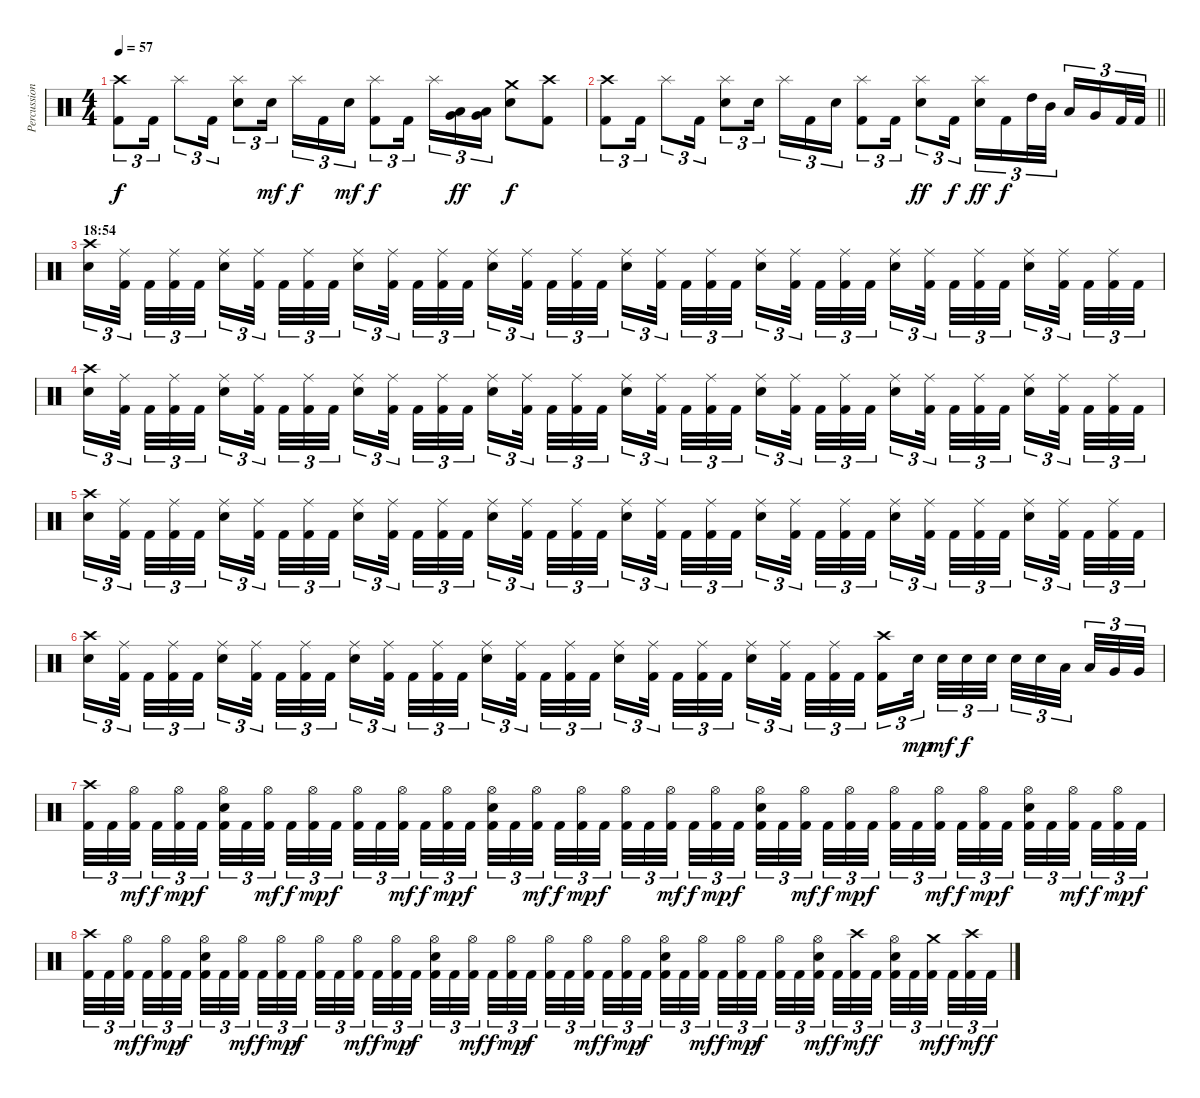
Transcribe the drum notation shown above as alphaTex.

\track ("Percussions" "Percussion") {instrument percussion}
\staff {score}
\articulation defaults
\ts (4 4)
\tempo 57
\clef neutral
\ks c
("Crash high (hit)" "Kick (hit) 2").8{tu (3 2) dy f} "Kick (hit) 2".16{tu (3 2)} "Splash (hit)".8{tu (3 2)} "Kick (hit) 2".16{tu (3 2)} ("Splash (hit)" "Snare (hit) 2").8{tu (3 2)} "Snare (hit) 2".16{tu (3 2) dy mf beam splitsecondary} "Splash (hit)".16{tu (3 2) dy f} "Kick (hit) 2".16{tu (3 2)} "Snare (hit) 2".16{tu (3 2) dy mf} ("Splash (hit)" "Kick (hit) 2").8{tu (3 2) dy f} "Kick (hit) 2".16{tu (3 2) beam splitsecondary} "Splash (hit)".16{tu (3 2)} ("Low Floor Tom (hit)" "Very Low Tom (hit)").16{tu (3 2) dy ff} ("Low Floor Tom (hit)" "Very Low Tom (hit)").16{tu (3 2)} ("Crash medium (hit)" "Snare (hit) 2").8{dy f} ("Crash high (hit)" "Kick (hit) 2").8 |
\barLineRight lightlight
("Crash high (hit)" "Kick (hit) 2").8{tu (3 2)} "Kick (hit) 2".16{tu (3 2)} "Splash (hit)".8{tu (3 2)} "Kick (hit) 2".16{tu (3 2)} ("Splash (hit)" "Snare (hit) 2").8{tu (3 2)} "Snare (hit) 2".16{tu (3 2) beam splitsecondary} "Splash (hit)".16{tu (3 2)} "Kick (hit) 2".16{tu (3 2)} "Snare (hit) 2".16{tu (3 2)} ("Splash (hit)" "Kick (hit) 2").8{tu (3 2)} "Kick (hit) 2".16{tu (3 2)} ("Splash (hit)" "Snare (hit) 2").8{tu (3 2) dy ff} "Kick (hit) 2".16{tu (3 2) dy f} ("Splash (hit)" "Snare (hit) 2").16{tu (3 2) dy ff} "Kick (hit) 2".16{tu (3 2) dy f} "High Tom (hit)".32{tu (3 2)} "Mid Tom (hit)".32{tu (3 2) beam splitsecondary} "Low Tom (hit)".16{tu (3 2)} "Very Low Tom (hit)".16{tu (3 2)} "Kick (hit) 2".32{tu (3 2)} "Kick (hit) 2".32{tu (3 2)} |
\section ("" "18:54")
("Crash high (hit)" "Snare (hit) 2").16{tu (3 2)} ("Ride (middle)" "Kick (hit) 2").32{tu (3 2) beam splitsecondary} "Kick (hit) 2".32{tu (3 2)} ("Ride (middle)" "Kick (hit) 2").32{tu (3 2)} "Kick (hit) 2".32{tu (3 2) beam splitsecondary} ("Ride (middle)" "Snare (hit) 2").16{tu (3 2)} ("Ride (middle)" "Kick (hit) 2").32{tu (3 2) beam splitsecondary} "Kick (hit) 2".32{tu (3 2)} ("Ride (middle)" "Kick (hit) 2").32{tu (3 2)} "Kick (hit) 2".32{tu (3 2)} ("Ride (middle)" "Snare (hit) 2").16{tu (3 2)} ("Ride (middle)" "Kick (hit) 2").32{tu (3 2) beam splitsecondary} "Kick (hit) 2".32{tu (3 2)} ("Ride (middle)" "Kick (hit) 2").32{tu (3 2)} "Kick (hit) 2".32{tu (3 2) beam splitsecondary} ("Ride (middle)" "Snare (hit) 2").16{tu (3 2)} ("Ride (middle)" "Kick (hit) 2").32{tu (3 2) beam splitsecondary} "Kick (hit) 2".32{tu (3 2)} ("Ride (middle)" "Kick (hit) 2").32{tu (3 2)} "Kick (hit) 2".32{tu (3 2)} ("Ride (middle)" "Snare (hit) 2").16{tu (3 2)} ("Ride (middle)" "Kick (hit) 2").32{tu (3 2) beam splitsecondary} "Kick (hit) 2".32{tu (3 2)} ("Ride (middle)" "Kick (hit) 2").32{tu (3 2)} "Kick (hit) 2".32{tu (3 2) beam splitsecondary} ("Ride (middle)" "Snare (hit) 2").16{tu (3 2)} ("Ride (middle)" "Kick (hit) 2").32{tu (3 2) beam splitsecondary} "Kick (hit) 2".32{tu (3 2)} ("Ride (middle)" "Kick (hit) 2").32{tu (3 2)} "Kick (hit) 2".32{tu (3 2)} ("Ride (middle)" "Snare (hit) 2").16{tu (3 2)} ("Ride (middle)" "Kick (hit) 2").32{tu (3 2) beam splitsecondary} "Kick (hit) 2".32{tu (3 2)} ("Ride (middle)" "Kick (hit) 2").32{tu (3 2)} "Kick (hit) 2".32{tu (3 2) beam splitsecondary} ("Ride (middle)" "Snare (hit) 2").16{tu (3 2)} ("Ride (middle)" "Kick (hit) 2").32{tu (3 2) beam splitsecondary} "Kick (hit) 2".32{tu (3 2)} ("Ride (middle)" "Kick (hit) 2").32{tu (3 2)} "Kick (hit) 2".32{tu (3 2)} |
("Crash high (hit)" "Snare (hit) 2").16{tu (3 2)} ("Ride (middle)" "Kick (hit) 2").32{tu (3 2) beam splitsecondary} "Kick (hit) 2".32{tu (3 2)} ("Ride (middle)" "Kick (hit) 2").32{tu (3 2)} "Kick (hit) 2".32{tu (3 2) beam splitsecondary} ("Ride (middle)" "Snare (hit) 2").16{tu (3 2)} ("Ride (middle)" "Kick (hit) 2").32{tu (3 2) beam splitsecondary} "Kick (hit) 2".32{tu (3 2)} ("Ride (middle)" "Kick (hit) 2").32{tu (3 2)} "Kick (hit) 2".32{tu (3 2)} ("Ride (middle)" "Snare (hit) 2").16{tu (3 2)} ("Ride (middle)" "Kick (hit) 2").32{tu (3 2) beam splitsecondary} "Kick (hit) 2".32{tu (3 2)} ("Ride (middle)" "Kick (hit) 2").32{tu (3 2)} "Kick (hit) 2".32{tu (3 2) beam splitsecondary} ("Ride (middle)" "Snare (hit) 2").16{tu (3 2)} ("Ride (middle)" "Kick (hit) 2").32{tu (3 2) beam splitsecondary} "Kick (hit) 2".32{tu (3 2)} ("Ride (middle)" "Kick (hit) 2").32{tu (3 2)} "Kick (hit) 2".32{tu (3 2)} ("Ride (middle)" "Snare (hit) 2").16{tu (3 2)} ("Ride (middle)" "Kick (hit) 2").32{tu (3 2) beam splitsecondary} "Kick (hit) 2".32{tu (3 2)} ("Ride (middle)" "Kick (hit) 2").32{tu (3 2)} "Kick (hit) 2".32{tu (3 2) beam splitsecondary} ("Ride (middle)" "Snare (hit) 2").16{tu (3 2)} ("Ride (middle)" "Kick (hit) 2").32{tu (3 2) beam splitsecondary} "Kick (hit) 2".32{tu (3 2)} ("Ride (middle)" "Kick (hit) 2").32{tu (3 2)} "Kick (hit) 2".32{tu (3 2)} ("Ride (middle)" "Snare (hit) 2").16{tu (3 2)} ("Ride (middle)" "Kick (hit) 2").32{tu (3 2) beam splitsecondary} "Kick (hit) 2".32{tu (3 2)} ("Ride (middle)" "Kick (hit) 2").32{tu (3 2)} "Kick (hit) 2".32{tu (3 2) beam splitsecondary} ("Ride (middle)" "Snare (hit) 2").16{tu (3 2)} ("Ride (middle)" "Kick (hit) 2").32{tu (3 2) beam splitsecondary} "Kick (hit) 2".32{tu (3 2)} ("Ride (middle)" "Kick (hit) 2").32{tu (3 2)} "Kick (hit) 2".32{tu (3 2)} |
("Crash high (hit)" "Snare (hit) 2").16{tu (3 2)} ("Ride (middle)" "Kick (hit) 2").32{tu (3 2) beam splitsecondary} "Kick (hit) 2".32{tu (3 2)} ("Ride (middle)" "Kick (hit) 2").32{tu (3 2)} "Kick (hit) 2".32{tu (3 2) beam splitsecondary} ("Ride (middle)" "Snare (hit) 2").16{tu (3 2)} ("Ride (middle)" "Kick (hit) 2").32{tu (3 2) beam splitsecondary} "Kick (hit) 2".32{tu (3 2)} ("Ride (middle)" "Kick (hit) 2").32{tu (3 2)} "Kick (hit) 2".32{tu (3 2)} ("Ride (middle)" "Snare (hit) 2").16{tu (3 2)} ("Ride (middle)" "Kick (hit) 2").32{tu (3 2) beam splitsecondary} "Kick (hit) 2".32{tu (3 2)} ("Ride (middle)" "Kick (hit) 2").32{tu (3 2)} "Kick (hit) 2".32{tu (3 2) beam splitsecondary} ("Ride (middle)" "Snare (hit) 2").16{tu (3 2)} ("Ride (middle)" "Kick (hit) 2").32{tu (3 2) beam splitsecondary} "Kick (hit) 2".32{tu (3 2)} ("Ride (middle)" "Kick (hit) 2").32{tu (3 2)} "Kick (hit) 2".32{tu (3 2)} ("Ride (middle)" "Snare (hit) 2").16{tu (3 2)} ("Ride (middle)" "Kick (hit) 2").32{tu (3 2) beam splitsecondary} "Kick (hit) 2".32{tu (3 2)} ("Ride (middle)" "Kick (hit) 2").32{tu (3 2)} "Kick (hit) 2".32{tu (3 2) beam splitsecondary} ("Ride (middle)" "Snare (hit) 2").16{tu (3 2)} ("Ride (middle)" "Kick (hit) 2").32{tu (3 2) beam splitsecondary} "Kick (hit) 2".32{tu (3 2)} ("Ride (middle)" "Kick (hit) 2").32{tu (3 2)} "Kick (hit) 2".32{tu (3 2)} ("Ride (middle)" "Snare (hit) 2").16{tu (3 2)} ("Ride (middle)" "Kick (hit) 2").32{tu (3 2) beam splitsecondary} "Kick (hit) 2".32{tu (3 2)} ("Ride (middle)" "Kick (hit) 2").32{tu (3 2)} "Kick (hit) 2".32{tu (3 2) beam splitsecondary} ("Ride (middle)" "Snare (hit) 2").16{tu (3 2)} ("Ride (middle)" "Kick (hit) 2").32{tu (3 2) beam splitsecondary} "Kick (hit) 2".32{tu (3 2)} ("Ride (middle)" "Kick (hit) 2").32{tu (3 2)} "Kick (hit) 2".32{tu (3 2)} |
("Crash high (hit)" "Snare (hit) 2").16{tu (3 2)} ("Ride (middle)" "Kick (hit) 2").32{tu (3 2) beam splitsecondary} "Kick (hit) 2".32{tu (3 2)} ("Ride (middle)" "Kick (hit) 2").32{tu (3 2)} "Kick (hit) 2".32{tu (3 2) beam splitsecondary} ("Ride (middle)" "Snare (hit) 2").16{tu (3 2)} ("Ride (middle)" "Kick (hit) 2").32{tu (3 2) beam splitsecondary} "Kick (hit) 2".32{tu (3 2)} ("Ride (middle)" "Kick (hit) 2").32{tu (3 2)} "Kick (hit) 2".32{tu (3 2)} ("Ride (middle)" "Snare (hit) 2").16{tu (3 2)} ("Ride (middle)" "Kick (hit) 2").32{tu (3 2) beam splitsecondary} "Kick (hit) 2".32{tu (3 2)} ("Ride (middle)" "Kick (hit) 2").32{tu (3 2)} "Kick (hit) 2".32{tu (3 2) beam splitsecondary} ("Ride (middle)" "Snare (hit) 2").16{tu (3 2)} ("Ride (middle)" "Kick (hit) 2").32{tu (3 2) beam splitsecondary} "Kick (hit) 2".32{tu (3 2)} ("Ride (middle)" "Kick (hit) 2").32{tu (3 2)} "Kick (hit) 2".32{tu (3 2)} ("Ride (middle)" "Snare (hit) 2").16{tu (3 2)} ("Ride (middle)" "Kick (hit) 2").32{tu (3 2) beam splitsecondary} "Kick (hit) 2".32{tu (3 2)} ("Ride (middle)" "Kick (hit) 2").32{tu (3 2)} "Kick (hit) 2".32{tu (3 2) beam splitsecondary} ("Ride (middle)" "Snare (hit) 2").16{tu (3 2)} ("Ride (middle)" "Kick (hit) 2").32{tu (3 2) beam splitsecondary} "Kick (hit) 2".32{tu (3 2)} ("Ride (middle)" "Kick (hit) 2").32{tu (3 2)} "Kick (hit) 2".32{tu (3 2)} ("Crash high (hit)" "Kick (hit) 2").16{tu (3 2)} "Snare (hit) 2".32{tu (3 2) dy mp beam splitsecondary} "Snare (hit) 2".32{tu (3 2) dy mf} "Snare (hit) 2".32{tu (3 2) dy f} "Snare (hit) 2".32{tu (3 2) beam splitsecondary} "Snare (hit) 2".32{tu (3 2)} "Snare (hit) 2".32{tu (3 2)} "Low Tom (hit)".32{tu (3 2) beam splitsecondary} "Low Tom (hit)".32{tu (3 2)} "Very Low Tom (hit)".32{tu (3 2)} "Very Low Tom (hit)".32{tu (3 2)} |
("Crash high (hit)" "Kick (hit) 2").32{tu (3 2)} "Kick (hit) 2".32{tu (3 2)} ("Hi-Hat (open)" "Kick (hit) 2").32{tu (3 2) dy mf beam splitsecondary} "Kick (hit) 2".32{tu (3 2) dy f} ("Hi-Hat (open)" "Kick (hit) 2").32{tu (3 2) dy mp} "Kick (hit) 2".32{tu (3 2) dy f beam splitsecondary} ("Hi-Hat (open)" "Snare (hit) 2" "Kick (hit) 2").32{tu (3 2)} "Kick (hit) 2".32{tu (3 2)} ("Hi-Hat (open)" "Kick (hit) 2").32{tu (3 2) dy mf beam splitsecondary} "Kick (hit) 2".32{tu (3 2) dy f} ("Hi-Hat (open)" "Kick (hit) 2").32{tu (3 2) dy mp} "Kick (hit) 2".32{tu (3 2) dy f} ("Hi-Hat (open)" "Kick (hit) 2").32{tu (3 2)} "Kick (hit) 2".32{tu (3 2)} ("Hi-Hat (open)" "Kick (hit) 2").32{tu (3 2) dy mf beam splitsecondary} "Kick (hit) 2".32{tu (3 2) dy f} ("Hi-Hat (open)" "Kick (hit) 2").32{tu (3 2) dy mp} "Kick (hit) 2".32{tu (3 2) dy f beam splitsecondary} ("Hi-Hat (open)" "Snare (hit) 2" "Kick (hit) 2").32{tu (3 2)} "Kick (hit) 2".32{tu (3 2)} ("Hi-Hat (open)" "Kick (hit) 2").32{tu (3 2) dy mf beam splitsecondary} "Kick (hit) 2".32{tu (3 2) dy f} ("Hi-Hat (open)" "Kick (hit) 2").32{tu (3 2) dy mp} "Kick (hit) 2".32{tu (3 2) dy f} ("Hi-Hat (open)" "Kick (hit) 2").32{tu (3 2)} "Kick (hit) 2".32{tu (3 2)} ("Hi-Hat (open)" "Kick (hit) 2").32{tu (3 2) dy mf beam splitsecondary} "Kick (hit) 2".32{tu (3 2) dy f} ("Hi-Hat (open)" "Kick (hit) 2").32{tu (3 2) dy mp} "Kick (hit) 2".32{tu (3 2) dy f beam splitsecondary} ("Hi-Hat (open)" "Snare (hit) 2" "Kick (hit) 2").32{tu (3 2)} "Kick (hit) 2".32{tu (3 2)} ("Hi-Hat (open)" "Kick (hit) 2").32{tu (3 2) dy mf beam splitsecondary} "Kick (hit) 2".32{tu (3 2) dy f} ("Hi-Hat (open)" "Kick (hit) 2").32{tu (3 2) dy mp} "Kick (hit) 2".32{tu (3 2) dy f} ("Hi-Hat (open)" "Kick (hit) 2").32{tu (3 2)} "Kick (hit) 2".32{tu (3 2)} ("Hi-Hat (open)" "Kick (hit) 2").32{tu (3 2) dy mf beam splitsecondary} "Kick (hit) 2".32{tu (3 2) dy f} ("Hi-Hat (open)" "Kick (hit) 2").32{tu (3 2) dy mp} "Kick (hit) 2".32{tu (3 2) dy f beam splitsecondary} ("Hi-Hat (open)" "Snare (hit) 2" "Kick (hit) 2").32{tu (3 2)} "Kick (hit) 2".32{tu (3 2)} ("Hi-Hat (open)" "Kick (hit) 2").32{tu (3 2) dy mf beam splitsecondary} "Kick (hit) 2".32{tu (3 2) dy f} ("Hi-Hat (open)" "Kick (hit) 2").32{tu (3 2) dy mp} "Kick (hit) 2".32{tu (3 2) dy f} |
("Crash high (hit)" "Kick (hit) 2").32{tu (3 2)} "Kick (hit) 2".32{tu (3 2)} ("Hi-Hat (open)" "Kick (hit) 2").32{tu (3 2) dy mf beam splitsecondary} "Kick (hit) 2".32{tu (3 2) dy f} ("Hi-Hat (open)" "Kick (hit) 2").32{tu (3 2) dy mp} "Kick (hit) 2".32{tu (3 2) dy f beam splitsecondary} ("Hi-Hat (open)" "Snare (hit) 2" "Kick (hit) 2").32{tu (3 2)} "Kick (hit) 2".32{tu (3 2)} ("Hi-Hat (open)" "Kick (hit) 2").32{tu (3 2) dy mf beam splitsecondary} "Kick (hit) 2".32{tu (3 2) dy f} ("Hi-Hat (open)" "Kick (hit) 2").32{tu (3 2) dy mp} "Kick (hit) 2".32{tu (3 2) dy f} ("Hi-Hat (open)" "Kick (hit) 2").32{tu (3 2)} "Kick (hit) 2".32{tu (3 2)} ("Hi-Hat (open)" "Kick (hit) 2").32{tu (3 2) dy mf beam splitsecondary} "Kick (hit) 2".32{tu (3 2) dy f} ("Hi-Hat (open)" "Kick (hit) 2").32{tu (3 2) dy mp} "Kick (hit) 2".32{tu (3 2) dy f beam splitsecondary} ("Hi-Hat (open)" "Snare (hit) 2" "Kick (hit) 2").32{tu (3 2)} "Kick (hit) 2".32{tu (3 2)} ("Hi-Hat (open)" "Kick (hit) 2").32{tu (3 2) dy mf beam splitsecondary} "Kick (hit) 2".32{tu (3 2) dy f} ("Hi-Hat (open)" "Kick (hit) 2").32{tu (3 2) dy mp} "Kick (hit) 2".32{tu (3 2) dy f} ("Hi-Hat (open)" "Kick (hit) 2").32{tu (3 2)} "Kick (hit) 2".32{tu (3 2)} ("Hi-Hat (open)" "Kick (hit) 2").32{tu (3 2) dy mf beam splitsecondary} "Kick (hit) 2".32{tu (3 2) dy f} ("Hi-Hat (open)" "Kick (hit) 2").32{tu (3 2) dy mp} "Kick (hit) 2".32{tu (3 2) dy f beam splitsecondary} ("Hi-Hat (open)" "Snare (hit) 2" "Kick (hit) 2").32{tu (3 2)} "Kick (hit) 2".32{tu (3 2)} ("Hi-Hat (open)" "Kick (hit) 2").32{tu (3 2) dy mf beam splitsecondary} "Kick (hit) 2".32{tu (3 2) dy f} ("Hi-Hat (open)" "Kick (hit) 2").32{tu (3 2) dy mp} "Kick (hit) 2".32{tu (3 2) dy f} ("Hi-Hat (open)" "Kick (hit) 2").32{tu (3 2)} "Kick (hit) 2".32{tu (3 2)} ("Hi-Hat (open)" "Snare (hit) 2" "Kick (hit) 2").32{tu (3 2) dy mf beam splitsecondary} "Kick (hit) 2".32{tu (3 2) dy f} ("Crash high (hit)" "Kick (hit) 2").32{tu (3 2) dy mf} "Kick (hit) 2".32{tu (3 2) dy f beam splitsecondary} ("Hi-Hat (open)" "Snare (hit) 2" "Kick (hit) 2").32{tu (3 2)} "Kick (hit) 2".32{tu (3 2)} ("Crash medium (hit)" "Kick (hit) 2").32{tu (3 2) dy mf beam splitsecondary} "Kick (hit) 2".32{tu (3 2) dy f} ("Crash high (hit)" "Kick (hit) 2").32{tu (3 2) dy mf} "Kick (hit) 2".32{tu (3 2) dy f}
